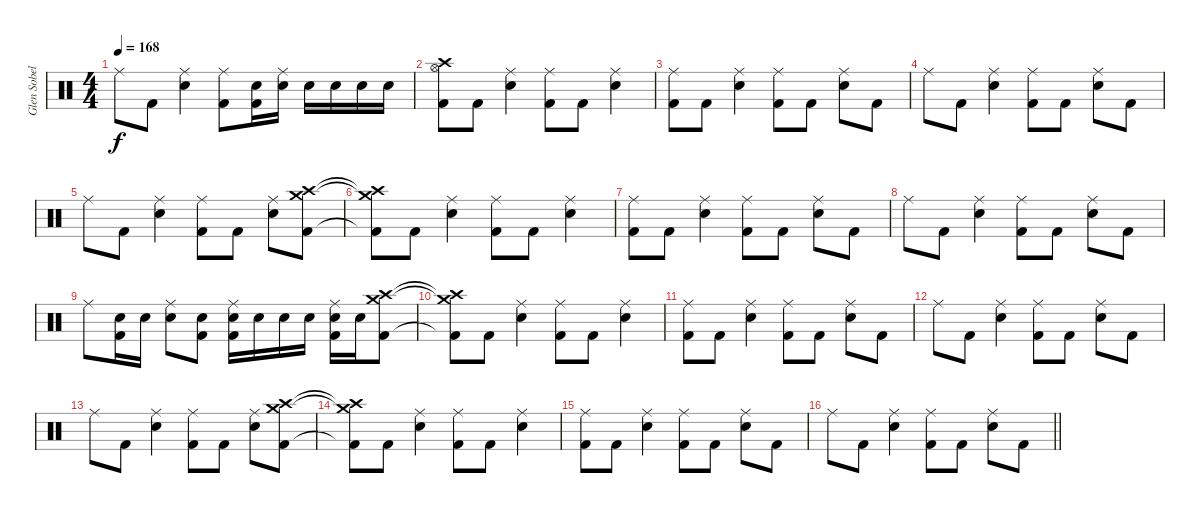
\track ("Glen Sobel" "Glen Sobel") {instrument percussion}
\staff {score}
\articulation defaults
\ts (4 4)
\tempo 168
\clef neutral
\ks c "Ride (middle)".8{dy f} "Kick (hit) 2".8
("Ride (middle)" "Snare (hit) 2").4 ("Ride (middle)" "Kick (hit) 2").8 ("Snare (hit) 2" "Kick (hit) 2").16 ("Ride (middle)" "Snare (hit) 2").16 "Snare (hit) 2".16 "Snare (hit) 2".16 "Snare (hit) 2".16 "Snare (hit) 2".16 |
("Hi-Hat (open)" "Crash high (hit)" "Kick (hit) 2").8 "Kick (hit) 2".8 ("Ride (middle)" "Snare (hit) 2").4 ("Ride (middle)" "Kick (hit) 2").8 "Kick (hit) 2".8 ("Ride (middle)" "Snare (hit) 2").4 |
("Ride (middle)" "Kick (hit) 2").8 "Kick (hit) 2".8 ("Ride (middle)" "Snare (hit) 2").4 ("Ride (middle)" "Kick (hit) 2").8 "Kick (hit) 2".8 ("Ride (middle)" "Snare (hit) 2").8 "Kick (hit) 2".8 |
"Ride (middle)".8 "Kick (hit) 2".8 ("Ride (middle)" "Snare (hit) 2").4 ("Ride (middle)" "Kick (hit) 2").8 "Kick (hit) 2".8 ("Ride (middle)" "Snare (hit) 2").8 "Kick (hit) 2".8 |
"Ride (middle)".8 "Kick (hit) 2".8 ("Ride (middle)" "Snare (hit) 2").4 ("Ride (middle)" "Kick (hit) 2").8 "Kick (hit) 2".8 ("Ride (middle)" "Snare (hit) 2").8 ("Crash medium (hit)" "Crash high (hit)" "Kick (hit) 2").8 |
("Crash medium (hit)"{t} "Crash high (hit)"{t} "Kick (hit) 2"{t}).8 "Kick (hit) 2".8 ("Ride (middle)" "Snare (hit) 2").4 ("Ride (middle)" "Kick (hit) 2").8 "Kick (hit) 2".8 ("Ride (middle)" "Snare (hit) 2").4 |
("Ride (middle)" "Kick (hit) 2").8 "Kick (hit) 2".8 ("Ride (middle)" "Snare (hit) 2").4 ("Ride (middle)" "Kick (hit) 2").8 "Kick (hit) 2".8 ("Ride (middle)" "Snare (hit) 2").8 "Kick (hit) 2".8 |
"Ride (middle)".8 "Kick (hit) 2".8 ("Ride (middle)" "Snare (hit) 2").4 ("Ride (middle)" "Kick (hit) 2").8 "Kick (hit) 2".8 ("Ride (middle)" "Snare (hit) 2").8 "Kick (hit) 2".8 |
"Ride (middle)".8 ("Snare (hit) 2" "Kick (hit) 2").16 "Snare (hit) 2".16 ("Ride (middle)" "Snare (hit) 2").8 ("Snare (hit) 2" "Kick (hit) 2").8 ("Ride (middle)" "Snare (hit) 2" "Kick (hit) 2").16 "Snare (hit) 2".16 "Snare (hit) 2".16 "Snare (hit) 2".16 ("Ride (middle)" "Snare (hit) 2" "Kick (hit) 2").16 "Snare (hit) 2".16 ("Crash medium (hit)" "Crash high (hit)" "Kick (hit) 2").8 |
("Crash medium (hit)"{t} "Crash high (hit)"{t} "Kick (hit) 2"{t}).8 "Kick (hit) 2".8 ("Ride (middle)" "Snare (hit) 2").4 ("Ride (middle)" "Kick (hit) 2").8 "Kick (hit) 2".8 ("Ride (middle)" "Snare (hit) 2").4 |
("Ride (middle)" "Kick (hit) 2").8 "Kick (hit) 2".8 ("Ride (middle)" "Snare (hit) 2").4 ("Ride (middle)" "Kick (hit) 2").8 "Kick (hit) 2".8 ("Ride (middle)" "Snare (hit) 2").8 "Kick (hit) 2".8 |
"Ride (middle)".8 "Kick (hit) 2".8 ("Ride (middle)" "Snare (hit) 2").4 ("Ride (middle)" "Kick (hit) 2").8 "Kick (hit) 2".8 ("Ride (middle)" "Snare (hit) 2").8 "Kick (hit) 2".8 |
"Ride (middle)".8 "Kick (hit) 2".8 ("Ride (middle)" "Snare (hit) 2").4 ("Ride (middle)" "Kick (hit) 2").8 "Kick (hit) 2".8 ("Ride (middle)" "Snare (hit) 2").8 ("Crash medium (hit)" "Crash high (hit)" "Kick (hit) 2").8 |
("Crash medium (hit)"{t} "Crash high (hit)"{t} "Kick (hit) 2"{t}).8 "Kick (hit) 2".8 ("Ride (middle)" "Snare (hit) 2").4 ("Ride (middle)" "Kick (hit) 2").8 "Kick (hit) 2".8 ("Ride (middle)" "Snare (hit) 2").4 |
("Ride (middle)" "Kick (hit) 2").8 "Kick (hit) 2".8 ("Ride (middle)" "Snare (hit) 2").4 ("Ride (middle)" "Kick (hit) 2").8 "Kick (hit) 2".8 ("Ride (middle)" "Snare (hit) 2").8 "Kick (hit) 2".8 |
\barLineRight lightlight "Ride (middle)".8 "Kick (hit) 2".8
("Ride (middle)" "Snare (hit) 2").4 ("Ride (middle)" "Kick (hit) 2").8 "Kick (hit) 2".8 ("Ride (middle)" "Snare (hit) 2").8 "Kick (hit) 2".8
